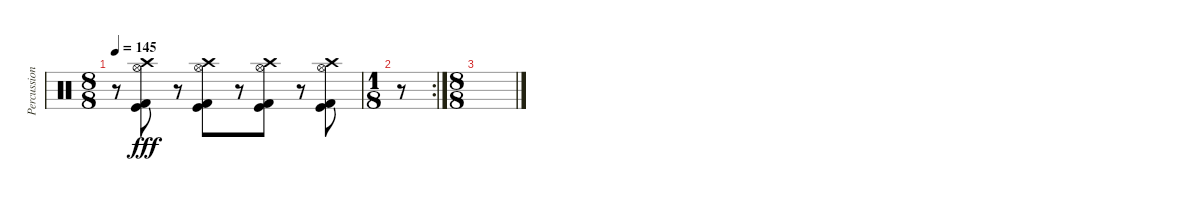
\track ("Percussion" "Percussion") {instrument percussion}
\staff {score}
\articulation defaults
\ts (8 8)
\tempo 145
\clef neutral
\ks c
r.8{dy fff} ("Crash high (hit)" "Hi-Hat (open)" "Kick (hit)" "Kick (hit) 2").8 r.8 ("Crash high (hit)" "Hi-Hat (open)" "Kick (hit)" "Kick (hit) 2").8 r.8 ("Crash high (hit)" "Hi-Hat (open)" "Kick (hit)" "Kick (hit) 2").8 r.8 ("Crash high (hit)" "Hi-Hat (open)" "Kick (hit)" "Kick (hit) 2").8 |
\rc 2
\ts (1 8)
r.8 |
\ts (8 8)
